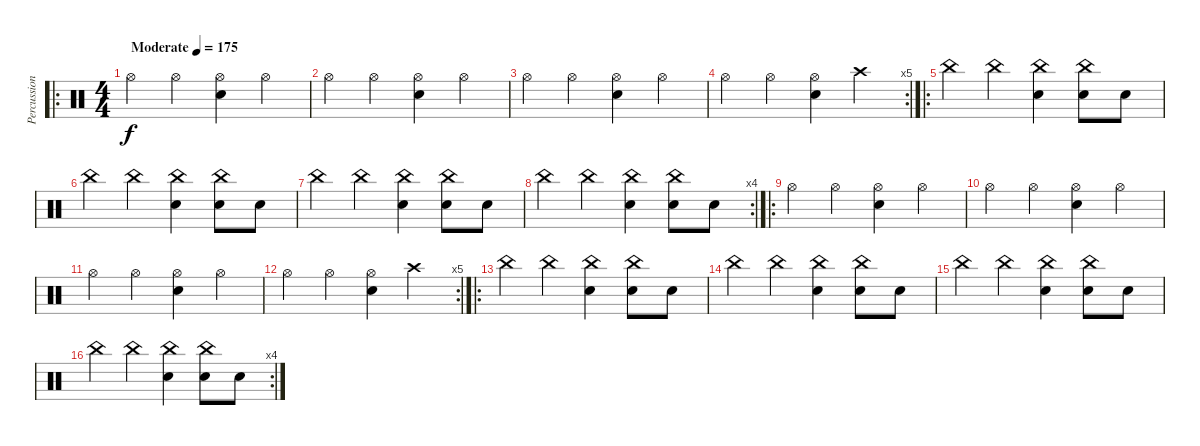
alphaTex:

\track ("Percussion" "Percussion") {instrument percussion}
\staff {score}
\articulation defaults
\ro
\ts (4 4)
\tempo (175 "Moderate")
\clef neutral
\ks c "Hi-Hat (open)".4{dy f} "Hi-Hat (open)".4
("Hi-Hat (open)" "Snare (hit) 2").4 "Hi-Hat (open)".4 |
"Hi-Hat (open)".4 "Hi-Hat (open)".4 ("Hi-Hat (open)" "Snare (hit) 2").4 "Hi-Hat (open)".4 |
"Hi-Hat (open)".4 "Hi-Hat (open)".4 ("Hi-Hat (open)" "Snare (hit) 2").4 "Hi-Hat (open)".4 |
\rc 5 "Hi-Hat (open)".4 "Hi-Hat (open)".4
("Hi-Hat (open)" "Snare (hit) 2").4 "Crash high (hit)".4 |
\ro "China (hit)".4 "China (hit)".4
("China (hit)" "Snare (hit) 2").4 ("China (hit)" "Snare (hit) 2").8 "Snare (hit) 2".8 |
"China (hit)".4 "China (hit)".4 ("China (hit)" "Snare (hit) 2").4 ("China (hit)" "Snare (hit) 2").8 "Snare (hit) 2".8 |
"China (hit)".4 "China (hit)".4 ("China (hit)" "Snare (hit) 2").4 ("China (hit)" "Snare (hit) 2").8 "Snare (hit) 2".8 |
\rc 4 "China (hit)".4 "China (hit)".4
("China (hit)" "Snare (hit) 2").4 ("China (hit)" "Snare (hit) 2").8 "Snare (hit) 2".8 |
\ro "Hi-Hat (open)".4 "Hi-Hat (open)".4
("Hi-Hat (open)" "Snare (hit) 2").4 "Hi-Hat (open)".4 |
"Hi-Hat (open)".4 "Hi-Hat (open)".4 ("Hi-Hat (open)" "Snare (hit) 2").4 "Hi-Hat (open)".4 |
"Hi-Hat (open)".4 "Hi-Hat (open)".4 ("Hi-Hat (open)" "Snare (hit) 2").4 "Hi-Hat (open)".4 |
\rc 5 "Hi-Hat (open)".4 "Hi-Hat (open)".4
("Hi-Hat (open)" "Snare (hit) 2").4 "Crash high (hit)".4 |
\ro "China (hit)".4 "China (hit)".4
("China (hit)" "Snare (hit) 2").4 ("China (hit)" "Snare (hit) 2").8 "Snare (hit) 2".8 |
"China (hit)".4 "China (hit)".4 ("China (hit)" "Snare (hit) 2").4 ("China (hit)" "Snare (hit) 2").8 "Snare (hit) 2".8 |
"China (hit)".4 "China (hit)".4 ("China (hit)" "Snare (hit) 2").4 ("China (hit)" "Snare (hit) 2").8 "Snare (hit) 2".8 |
\rc 4 "China (hit)".4 "China (hit)".4
("China (hit)" "Snare (hit) 2").4 ("China (hit)" "Snare (hit) 2").8 "Snare (hit) 2".8
